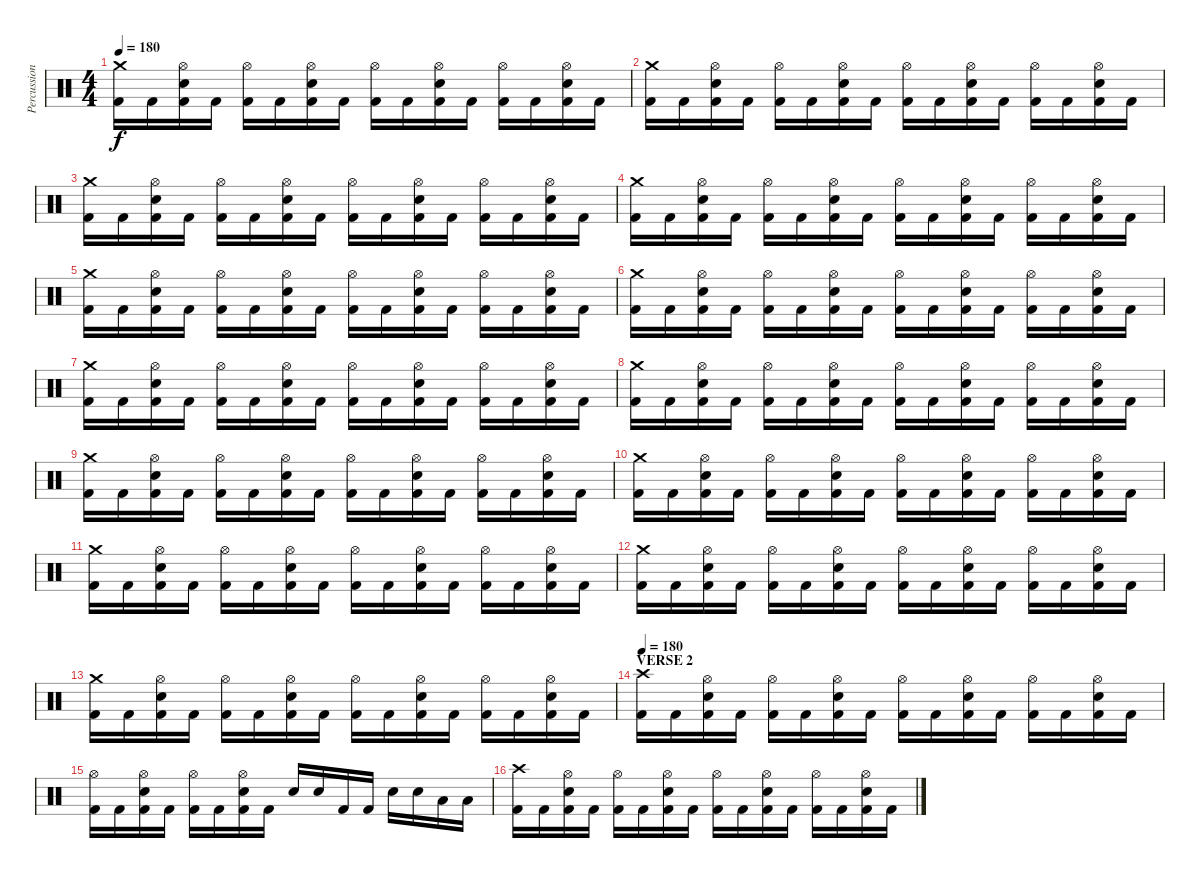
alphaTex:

\track ("Percussion" "Percussion") {instrument percussion}
\staff {score}
\articulation defaults
\ts (4 4)
\tempo 180
\clef neutral
\ks c
("Crash medium (hit)" "Kick (hit) 2").16{dy f} "Kick (hit) 2".16 ("Hi-Hat (open)" "Snare (hit) 2" "Kick (hit) 2").16 "Kick (hit) 2".16 ("Hi-Hat (open)" "Kick (hit) 2").16 "Kick (hit) 2".16 ("Hi-Hat (open)" "Snare (hit) 2" "Kick (hit) 2").16 "Kick (hit) 2".16 ("Hi-Hat (open)" "Kick (hit) 2").16 "Kick (hit) 2".16 ("Hi-Hat (open)" "Snare (hit) 2" "Kick (hit) 2").16 "Kick (hit) 2".16 ("Hi-Hat (open)" "Kick (hit) 2").16 "Kick (hit) 2".16 ("Hi-Hat (open)" "Snare (hit) 2" "Kick (hit) 2").16 "Kick (hit) 2".16 |
("Crash medium (hit)" "Kick (hit) 2").16 "Kick (hit) 2".16 ("Hi-Hat (open)" "Snare (hit) 2" "Kick (hit) 2").16 "Kick (hit) 2".16 ("Hi-Hat (open)" "Kick (hit) 2").16 "Kick (hit) 2".16 ("Hi-Hat (open)" "Snare (hit) 2" "Kick (hit) 2").16 "Kick (hit) 2".16 ("Hi-Hat (open)" "Kick (hit) 2").16 "Kick (hit) 2".16 ("Hi-Hat (open)" "Snare (hit) 2" "Kick (hit) 2").16 "Kick (hit) 2".16 ("Hi-Hat (open)" "Kick (hit) 2").16 "Kick (hit) 2".16 ("Hi-Hat (open)" "Snare (hit) 2" "Kick (hit) 2").16 "Kick (hit) 2".16 |
("Crash medium (hit)" "Kick (hit) 2").16 "Kick (hit) 2".16 ("Hi-Hat (open)" "Snare (hit) 2" "Kick (hit) 2").16 "Kick (hit) 2".16 ("Hi-Hat (open)" "Kick (hit) 2").16 "Kick (hit) 2".16 ("Hi-Hat (open)" "Snare (hit) 2" "Kick (hit) 2").16 "Kick (hit) 2".16 ("Hi-Hat (open)" "Kick (hit) 2").16 "Kick (hit) 2".16 ("Hi-Hat (open)" "Snare (hit) 2" "Kick (hit) 2").16 "Kick (hit) 2".16 ("Hi-Hat (open)" "Kick (hit) 2").16 "Kick (hit) 2".16 ("Hi-Hat (open)" "Snare (hit) 2" "Kick (hit) 2").16 "Kick (hit) 2".16 |
("Crash medium (hit)" "Kick (hit) 2").16 "Kick (hit) 2".16 ("Hi-Hat (open)" "Snare (hit) 2" "Kick (hit) 2").16 "Kick (hit) 2".16 ("Hi-Hat (open)" "Kick (hit) 2").16 "Kick (hit) 2".16 ("Hi-Hat (open)" "Snare (hit) 2" "Kick (hit) 2").16 "Kick (hit) 2".16 ("Hi-Hat (open)" "Kick (hit) 2").16 "Kick (hit) 2".16 ("Hi-Hat (open)" "Snare (hit) 2" "Kick (hit) 2").16 "Kick (hit) 2".16 ("Hi-Hat (open)" "Kick (hit) 2").16 "Kick (hit) 2".16 ("Hi-Hat (open)" "Snare (hit) 2" "Kick (hit) 2").16 "Kick (hit) 2".16 |
("Crash medium (hit)" "Kick (hit) 2").16 "Kick (hit) 2".16 ("Hi-Hat (open)" "Snare (hit) 2" "Kick (hit) 2").16 "Kick (hit) 2".16 ("Hi-Hat (open)" "Kick (hit) 2").16 "Kick (hit) 2".16 ("Hi-Hat (open)" "Snare (hit) 2" "Kick (hit) 2").16 "Kick (hit) 2".16 ("Hi-Hat (open)" "Kick (hit) 2").16 "Kick (hit) 2".16 ("Hi-Hat (open)" "Snare (hit) 2" "Kick (hit) 2").16 "Kick (hit) 2".16 ("Hi-Hat (open)" "Kick (hit) 2").16 "Kick (hit) 2".16 ("Hi-Hat (open)" "Snare (hit) 2" "Kick (hit) 2").16 "Kick (hit) 2".16 |
("Crash medium (hit)" "Kick (hit) 2").16 "Kick (hit) 2".16 ("Hi-Hat (open)" "Snare (hit) 2" "Kick (hit) 2").16 "Kick (hit) 2".16 ("Hi-Hat (open)" "Kick (hit) 2").16 "Kick (hit) 2".16 ("Hi-Hat (open)" "Snare (hit) 2" "Kick (hit) 2").16 "Kick (hit) 2".16 ("Hi-Hat (open)" "Kick (hit) 2").16 "Kick (hit) 2".16 ("Hi-Hat (open)" "Snare (hit) 2" "Kick (hit) 2").16 "Kick (hit) 2".16 ("Hi-Hat (open)" "Kick (hit) 2").16 "Kick (hit) 2".16 ("Hi-Hat (open)" "Snare (hit) 2" "Kick (hit) 2").16 "Kick (hit) 2".16 |
("Crash medium (hit)" "Kick (hit) 2").16 "Kick (hit) 2".16 ("Hi-Hat (open)" "Snare (hit) 2" "Kick (hit) 2").16 "Kick (hit) 2".16 ("Hi-Hat (open)" "Kick (hit) 2").16 "Kick (hit) 2".16 ("Hi-Hat (open)" "Snare (hit) 2" "Kick (hit) 2").16 "Kick (hit) 2".16 ("Hi-Hat (open)" "Kick (hit) 2").16 "Kick (hit) 2".16 ("Hi-Hat (open)" "Snare (hit) 2" "Kick (hit) 2").16 "Kick (hit) 2".16 ("Hi-Hat (open)" "Kick (hit) 2").16 "Kick (hit) 2".16 ("Hi-Hat (open)" "Snare (hit) 2" "Kick (hit) 2").16 "Kick (hit) 2".16 |
("Crash medium (hit)" "Kick (hit) 2").16 "Kick (hit) 2".16 ("Hi-Hat (open)" "Snare (hit) 2" "Kick (hit) 2").16 "Kick (hit) 2".16 ("Hi-Hat (open)" "Kick (hit) 2").16 "Kick (hit) 2".16 ("Hi-Hat (open)" "Snare (hit) 2" "Kick (hit) 2").16 "Kick (hit) 2".16 ("Hi-Hat (open)" "Kick (hit) 2").16 "Kick (hit) 2".16 ("Hi-Hat (open)" "Snare (hit) 2" "Kick (hit) 2").16 "Kick (hit) 2".16 ("Hi-Hat (open)" "Kick (hit) 2").16 "Kick (hit) 2".16 ("Hi-Hat (open)" "Snare (hit) 2" "Kick (hit) 2").16 "Kick (hit) 2".16 |
("Crash medium (hit)" "Kick (hit) 2").16 "Kick (hit) 2".16 ("Hi-Hat (open)" "Snare (hit) 2" "Kick (hit) 2").16 "Kick (hit) 2".16 ("Hi-Hat (open)" "Kick (hit) 2").16 "Kick (hit) 2".16 ("Hi-Hat (open)" "Snare (hit) 2" "Kick (hit) 2").16 "Kick (hit) 2".16 ("Hi-Hat (open)" "Kick (hit) 2").16 "Kick (hit) 2".16 ("Hi-Hat (open)" "Snare (hit) 2" "Kick (hit) 2").16 "Kick (hit) 2".16 ("Hi-Hat (open)" "Kick (hit) 2").16 "Kick (hit) 2".16 ("Hi-Hat (open)" "Snare (hit) 2" "Kick (hit) 2").16 "Kick (hit) 2".16 |
("Crash medium (hit)" "Kick (hit) 2").16 "Kick (hit) 2".16 ("Hi-Hat (open)" "Snare (hit) 2" "Kick (hit) 2").16 "Kick (hit) 2".16 ("Hi-Hat (open)" "Kick (hit) 2").16 "Kick (hit) 2".16 ("Hi-Hat (open)" "Snare (hit) 2" "Kick (hit) 2").16 "Kick (hit) 2".16 ("Hi-Hat (open)" "Kick (hit) 2").16 "Kick (hit) 2".16 ("Hi-Hat (open)" "Snare (hit) 2" "Kick (hit) 2").16 "Kick (hit) 2".16 ("Hi-Hat (open)" "Kick (hit) 2").16 "Kick (hit) 2".16 ("Hi-Hat (open)" "Snare (hit) 2" "Kick (hit) 2").16 "Kick (hit) 2".16 |
("Crash medium (hit)" "Kick (hit) 2").16 "Kick (hit) 2".16 ("Hi-Hat (open)" "Snare (hit) 2" "Kick (hit) 2").16 "Kick (hit) 2".16 ("Hi-Hat (open)" "Kick (hit) 2").16 "Kick (hit) 2".16 ("Hi-Hat (open)" "Snare (hit) 2" "Kick (hit) 2").16 "Kick (hit) 2".16 ("Hi-Hat (open)" "Kick (hit) 2").16 "Kick (hit) 2".16 ("Hi-Hat (open)" "Snare (hit) 2" "Kick (hit) 2").16 "Kick (hit) 2".16 ("Hi-Hat (open)" "Kick (hit) 2").16 "Kick (hit) 2".16 ("Hi-Hat (open)" "Snare (hit) 2" "Kick (hit) 2").16 "Kick (hit) 2".16 |
("Crash medium (hit)" "Kick (hit) 2").16 "Kick (hit) 2".16 ("Hi-Hat (open)" "Snare (hit) 2" "Kick (hit) 2").16 "Kick (hit) 2".16 ("Hi-Hat (open)" "Kick (hit) 2").16 "Kick (hit) 2".16 ("Hi-Hat (open)" "Snare (hit) 2" "Kick (hit) 2").16 "Kick (hit) 2".16 ("Hi-Hat (open)" "Kick (hit) 2").16 "Kick (hit) 2".16 ("Hi-Hat (open)" "Snare (hit) 2" "Kick (hit) 2").16 "Kick (hit) 2".16 ("Hi-Hat (open)" "Kick (hit) 2").16 "Kick (hit) 2".16 ("Hi-Hat (open)" "Snare (hit) 2" "Kick (hit) 2").16 "Kick (hit) 2".16 |
("Crash medium (hit)" "Kick (hit) 2").16 "Kick (hit) 2".16 ("Hi-Hat (open)" "Snare (hit) 2" "Kick (hit) 2").16 "Kick (hit) 2".16 ("Hi-Hat (open)" "Kick (hit) 2").16 "Kick (hit) 2".16 ("Hi-Hat (open)" "Snare (hit) 2" "Kick (hit) 2").16 "Kick (hit) 2".16 ("Hi-Hat (open)" "Kick (hit) 2").16 "Kick (hit) 2".16 ("Hi-Hat (open)" "Snare (hit) 2" "Kick (hit) 2").16 "Kick (hit) 2".16 ("Hi-Hat (open)" "Kick (hit) 2").16 "Kick (hit) 2".16 ("Hi-Hat (open)" "Snare (hit) 2" "Kick (hit) 2").16 "Kick (hit) 2".16 |
\section ("" "VERSE 2")
\tempo 180
("Crash high (hit)" "Kick (hit) 2").16 "Kick (hit) 2".16 ("Hi-Hat (open)" "Snare (hit) 2" "Kick (hit) 2").16 "Kick (hit) 2".16 ("Hi-Hat (open)" "Kick (hit) 2").16 "Kick (hit) 2".16 ("Hi-Hat (open)" "Snare (hit) 2" "Kick (hit) 2").16 "Kick (hit) 2".16 ("Hi-Hat (open)" "Kick (hit) 2").16 "Kick (hit) 2".16 ("Hi-Hat (open)" "Snare (hit) 2" "Kick (hit) 2").16 "Kick (hit) 2".16 ("Hi-Hat (open)" "Kick (hit) 2").16 "Kick (hit) 2".16 ("Hi-Hat (open)" "Snare (hit) 2" "Kick (hit) 2").16 "Kick (hit) 2".16 |
("Hi-Hat (open)" "Kick (hit) 2").16 "Kick (hit) 2".16 ("Hi-Hat (open)" "Snare (hit) 2" "Kick (hit) 2").16 "Kick (hit) 2".16 ("Hi-Hat (open)" "Kick (hit) 2").16 "Kick (hit) 2".16 ("Hi-Hat (open)" "Snare (hit) 2" "Kick (hit) 2").16 "Kick (hit) 2".16 "Snare (hit) 2".16 "Snare (hit) 2".16 "Kick (hit) 2".16 "Kick (hit) 2".16 "Snare (hit) 2".16 "Snare (hit) 2".16 "Low Tom (hit)".16 "Low Tom (hit)".16 |
("Crash high (hit)" "Kick (hit) 2").16 "Kick (hit) 2".16 ("Hi-Hat (open)" "Snare (hit) 2" "Kick (hit) 2").16 "Kick (hit) 2".16 ("Hi-Hat (open)" "Kick (hit) 2").16 "Kick (hit) 2".16 ("Hi-Hat (open)" "Snare (hit) 2" "Kick (hit) 2").16 "Kick (hit) 2".16 ("Hi-Hat (open)" "Kick (hit) 2").16 "Kick (hit) 2".16 ("Hi-Hat (open)" "Snare (hit) 2" "Kick (hit) 2").16 "Kick (hit) 2".16 ("Hi-Hat (open)" "Kick (hit) 2").16 "Kick (hit) 2".16 ("Hi-Hat (open)" "Snare (hit) 2" "Kick (hit) 2").16 "Kick (hit) 2".16
